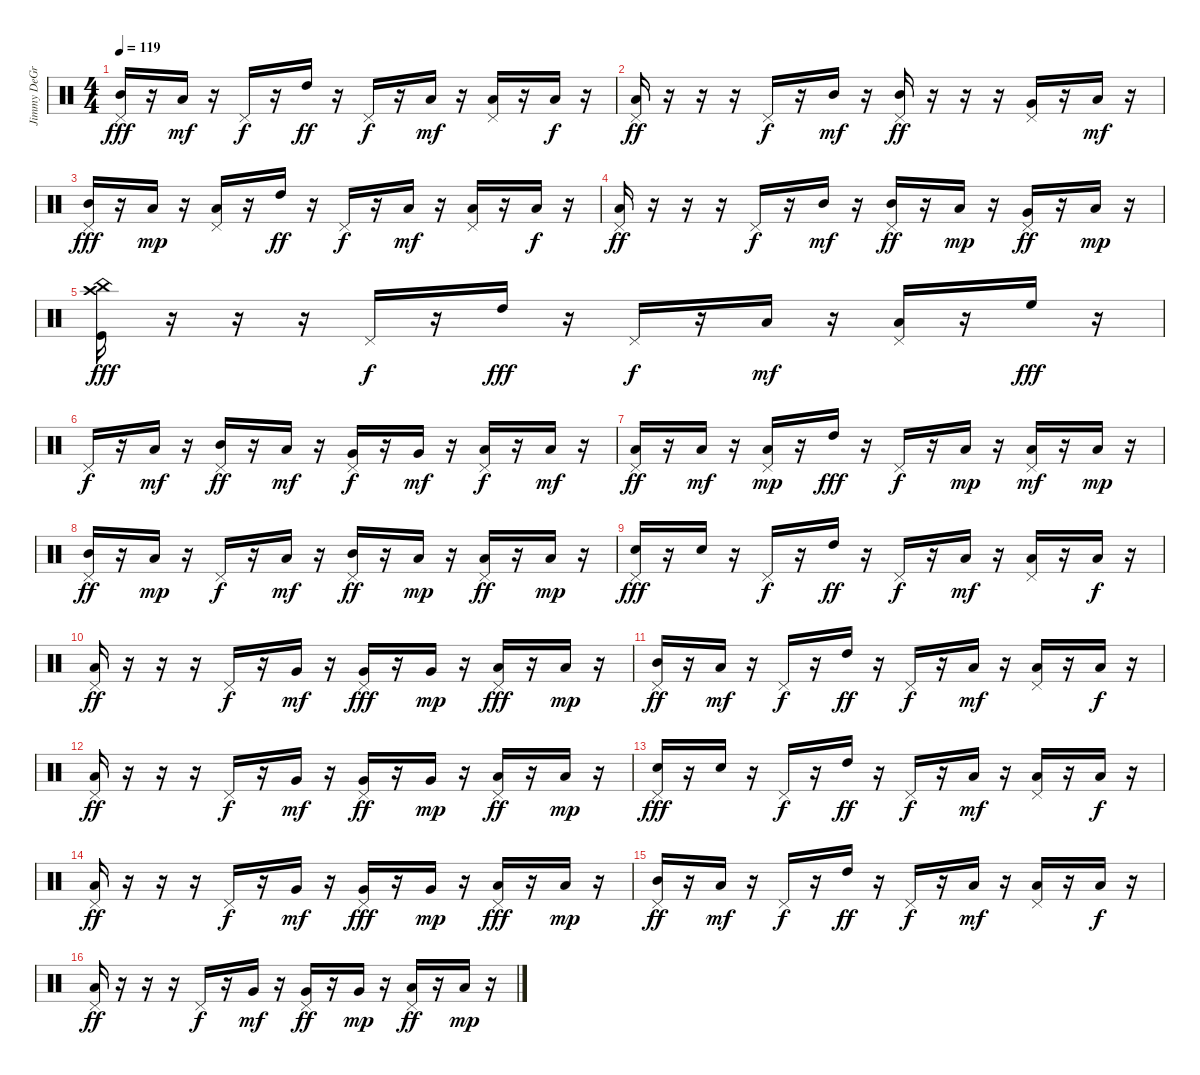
\track ("Jimmy DeGrasso" "Jimmy DeGr") {instrument percussion}
\staff {score}
\articulation defaults
\ts (4 4)
\tempo 119
\clef neutral
\ks c
("Mid Tom (hit)" "Pedal Hi-Hat (hit)").16{dy fff} r.16 "Low Floor Tom (hit)".16{dy mf} r.16 "Pedal Hi-Hat (hit)".16{dy f} r.16 "High Tom (hit)".16{dy ff} r.16 "Pedal Hi-Hat (hit)".16{dy f} r.16 "Low Floor Tom (hit)".16{dy mf} r.16 ("Low Floor Tom (hit)" "Pedal Hi-Hat (hit)").16 r.16 "Low Floor Tom (hit)".16{dy f} r.16 |
("Low Floor Tom (hit)" "Pedal Hi-Hat (hit)").16{dy ff} r.16 r.16 r.16 "Pedal Hi-Hat (hit)".16{dy f} r.16 "Mid Tom (hit)".16{dy mf} r.16 ("Mid Tom (hit)" "Pedal Hi-Hat (hit)").16{dy ff} r.16 r.16 r.16 ("Very Low Tom (hit)" "Pedal Hi-Hat (hit)").16 r.16 "Low Floor Tom (hit)".16{dy mf} r.16 |
("Mid Tom (hit)" "Pedal Hi-Hat (hit)").16{dy fff} r.16 "Low Floor Tom (hit)".16{dy mp} r.16 ("Low Floor Tom (hit)" "Pedal Hi-Hat (hit)").16 r.16 "High Tom (hit)".16{dy ff} r.16 "Pedal Hi-Hat (hit)".16{dy f} r.16 "Low Floor Tom (hit)".16{dy mf} r.16 ("Low Floor Tom (hit)" "Pedal Hi-Hat (hit)").16 r.16 "Low Floor Tom (hit)".16{dy f} r.16 |
("Low Floor Tom (hit)" "Pedal Hi-Hat (hit)").16{dy ff} r.16 r.16 r.16 "Pedal Hi-Hat (hit)".16{dy f} r.16 "Mid Tom (hit)".16{dy mf} r.16 ("Mid Tom (hit)" "Pedal Hi-Hat (hit)").16{dy ff} r.16 "Low Floor Tom (hit)".16{dy mp} r.16 ("Very Low Tom (hit)" "Pedal Hi-Hat (hit)").16{dy ff} r.16 "Low Floor Tom (hit)".16{dy mp} r.16 |
("Kick (hit)" "China (hit)" "Crash high (hit)").16{dy fff} r.16 r.16 r.16 "Pedal Hi-Hat (hit)".16{dy f} r.16 "High Tom (hit)".16{dy fff} r.16 "Pedal Hi-Hat (hit)".16{dy f} r.16 "Low Floor Tom (hit)".16{dy mf} r.16 ("Low Floor Tom (hit)" "Pedal Hi-Hat (hit)").16 r.16 "High Floor Tom (hit)".16{dy fff} r.16 |
"Pedal Hi-Hat (hit)".16{dy f} r.16 "Low Floor Tom (hit)".16{dy mf} r.16 ("Mid Tom (hit)" "Pedal Hi-Hat (hit)").16{dy ff} r.16 "Low Tom (hit)".16{dy mf} r.16 ("Very Low Tom (hit)" "Pedal Hi-Hat (hit)").16{dy f} r.16 "Very Low Tom (hit)".16{dy mf} r.16 ("Low Floor Tom (hit)" "Pedal Hi-Hat (hit)").16{dy f} r.16 "Low Floor Tom (hit)".16{dy mf} r.16 |
("Low Floor Tom (hit)" "Pedal Hi-Hat (hit)").16{dy ff} r.16 "Low Floor Tom (hit)".16{dy mf} r.16 ("Low Floor Tom (hit)" "Pedal Hi-Hat (hit)").16{dy mp} r.16 "High Tom (hit)".16{dy fff} r.16 "Pedal Hi-Hat (hit)".16{dy f} r.16 "Low Floor Tom (hit)".16{dy mp} r.16 ("Low Floor Tom (hit)" "Pedal Hi-Hat (hit)").16{dy mf} r.16 "Low Floor Tom (hit)".16{dy mp} r.16 |
("Mid Tom (hit)" "Pedal Hi-Hat (hit)").16{dy ff} r.16 "Low Floor Tom (hit)".16{dy mp} r.16 "Pedal Hi-Hat (hit)".16{dy f} r.16 "Low Floor Tom (hit)".16{dy mf} r.16 ("Mid Tom (hit)" "Pedal Hi-Hat (hit)").16{dy ff} r.16 "Low Floor Tom (hit)".16{dy mp} r.16 ("Low Tom (hit)" "Pedal Hi-Hat (hit)").16{dy ff} r.16 "Low Floor Tom (hit)".16{dy mp} r.16 |
("Electric Snare (hit)" "Pedal Hi-Hat (hit)").16{dy fff} r.16 "Electric Snare (hit)".16 r.16 "Pedal Hi-Hat (hit)".16{dy f} r.16 "High Tom (hit)".16{dy ff} r.16 "Pedal Hi-Hat (hit)".16{dy f} r.16 "Low Floor Tom (hit)".16{dy mf} r.16 ("Low Floor Tom (hit)" "Pedal Hi-Hat (hit)").16 r.16 "Low Floor Tom (hit)".16{dy f} r.16 |
("Low Floor Tom (hit)" "Pedal Hi-Hat (hit)").16{dy ff} r.16 r.16 r.16 "Pedal Hi-Hat (hit)".16{dy f} r.16 "Very Low Tom (hit)".16{dy mf} r.16 ("Very Low Tom (hit)" "Pedal Hi-Hat (hit)").16{dy fff} r.16 "Very Low Tom (hit)".16{dy mp} r.16 ("Low Floor Tom (hit)" "Pedal Hi-Hat (hit)").16{dy fff} r.16 "Low Floor Tom (hit)".16{dy mp} r.16 |
("Mid Tom (hit)" "Pedal Hi-Hat (hit)").16{dy ff} r.16 "Low Floor Tom (hit)".16{dy mf} r.16 "Pedal Hi-Hat (hit)".16{dy f} r.16 "High Tom (hit)".16{dy ff} r.16 "Pedal Hi-Hat (hit)".16{dy f} r.16 "Low Floor Tom (hit)".16{dy mf} r.16 ("Low Floor Tom (hit)" "Pedal Hi-Hat (hit)").16 r.16 "Low Floor Tom (hit)".16{dy f} r.16 |
("Low Floor Tom (hit)" "Pedal Hi-Hat (hit)").16{dy ff} r.16 r.16 r.16 "Pedal Hi-Hat (hit)".16{dy f} r.16 "Very Low Tom (hit)".16{dy mf} r.16 ("Very Low Tom (hit)" "Pedal Hi-Hat (hit)").16{dy ff} r.16 "Very Low Tom (hit)".16{dy mp} r.16 ("Low Floor Tom (hit)" "Pedal Hi-Hat (hit)").16{dy ff} r.16 "Low Floor Tom (hit)".16{dy mp} r.16 |
("Electric Snare (hit)" "Pedal Hi-Hat (hit)").16{dy fff} r.16 "Electric Snare (hit)".16 r.16 "Pedal Hi-Hat (hit)".16{dy f} r.16 "High Tom (hit)".16{dy ff} r.16 "Pedal Hi-Hat (hit)".16{dy f} r.16 "Low Floor Tom (hit)".16{dy mf} r.16 ("Low Floor Tom (hit)" "Pedal Hi-Hat (hit)").16 r.16 "Low Floor Tom (hit)".16{dy f} r.16 |
("Low Floor Tom (hit)" "Pedal Hi-Hat (hit)").16{dy ff} r.16 r.16 r.16 "Pedal Hi-Hat (hit)".16{dy f} r.16 "Very Low Tom (hit)".16{dy mf} r.16 ("Very Low Tom (hit)" "Pedal Hi-Hat (hit)").16{dy fff} r.16 "Very Low Tom (hit)".16{dy mp} r.16 ("Low Floor Tom (hit)" "Pedal Hi-Hat (hit)").16{dy fff} r.16 "Low Floor Tom (hit)".16{dy mp} r.16 |
("Mid Tom (hit)" "Pedal Hi-Hat (hit)").16{dy ff} r.16 "Low Floor Tom (hit)".16{dy mf} r.16 "Pedal Hi-Hat (hit)".16{dy f} r.16 "High Tom (hit)".16{dy ff} r.16 "Pedal Hi-Hat (hit)".16{dy f} r.16 "Low Floor Tom (hit)".16{dy mf} r.16 ("Low Floor Tom (hit)" "Pedal Hi-Hat (hit)").16 r.16 "Low Floor Tom (hit)".16{dy f} r.16 |
("Low Floor Tom (hit)" "Pedal Hi-Hat (hit)").16{dy ff} r.16 r.16 r.16 "Pedal Hi-Hat (hit)".16{dy f} r.16 "Very Low Tom (hit)".16{dy mf} r.16 ("Very Low Tom (hit)" "Pedal Hi-Hat (hit)").16{dy ff} r.16 "Very Low Tom (hit)".16{dy mp} r.16 ("Low Floor Tom (hit)" "Pedal Hi-Hat (hit)").16{dy ff} r.16 "Low Floor Tom (hit)".16{dy mp} r.16
